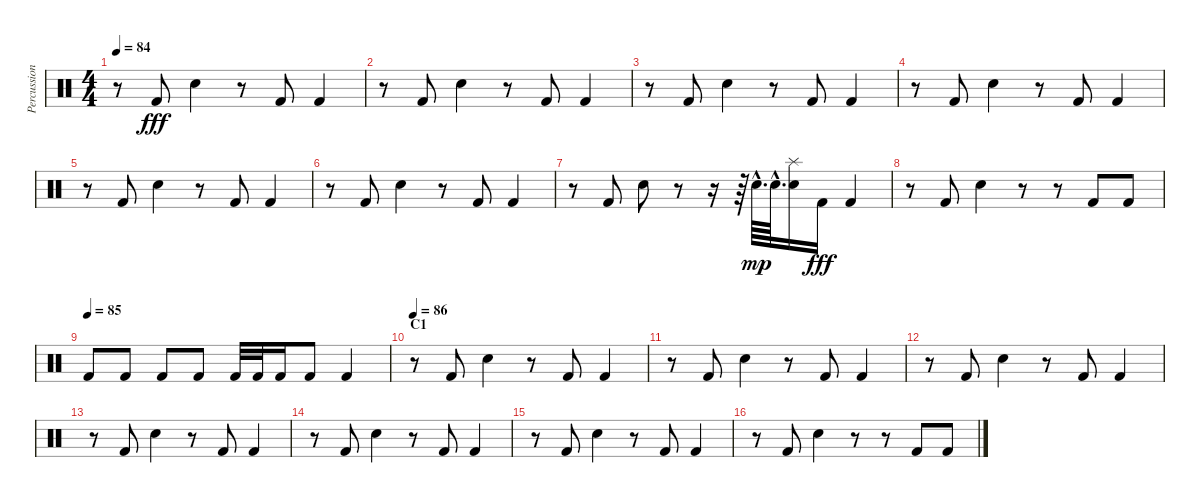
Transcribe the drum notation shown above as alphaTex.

\track ("Percussion" "Percussion") {instrument percussion}
\staff {score}
\articulation defaults
\ts (4 4)
\tempo 84
\clef neutral
\ks c
r.8{dy fff} "Kick (hit) 2".8 "Electric Snare (hit)".4 r.8 "Kick (hit) 2".8 "Kick (hit) 2".4 |
r.8 "Kick (hit) 2".8 "Electric Snare (hit)".4 r.8 "Kick (hit) 2".8 "Kick (hit) 2".4 |
r.8 "Kick (hit) 2".8 "Electric Snare (hit)".4 r.8 "Kick (hit) 2".8 "Kick (hit) 2".4 |
r.8 "Kick (hit) 2".8 "Electric Snare (hit)".4 r.8 "Kick (hit) 2".8 "Kick (hit) 2".4 |
r.8 "Kick (hit) 2".8 "Electric Snare (hit)".4 r.8 "Kick (hit) 2".8 "Kick (hit) 2".4 |
r.8 "Kick (hit) 2".8 "Electric Snare (hit)".4 r.8 "Kick (hit) 2".8 "Kick (hit) 2".4 |
r.8 "Kick (hit) 2".8 "Electric Snare (hit)".8 r.8 r.16 r.64 "Electric Snare (hit)"{hac}.64{d dy mp} "Electric Snare (hit)"{hac}.64{d} ("Electric Snare (hit)" "Splash (hit)").16 "Kick (hit) 2".16{dy fff} "Kick (hit) 2".4 |
r.8 "Kick (hit) 2".8 "Electric Snare (hit)".4 r.8 r.8 "Kick (hit) 2".8 "Kick (hit) 2".8 |
\tempo (85)
"Kick (hit) 2".8 "Kick (hit) 2".8 "Kick (hit) 2".8 "Kick (hit) 2".8 "Kick (hit) 2".32 "Kick (hit) 2".32 "Kick (hit) 2".16 "Kick (hit) 2".8 "Kick (hit) 2".4 |
\section ("" "C1")
\tempo 86
r.8 "Kick (hit) 2".8 "Electric Snare (hit)".4 r.8 "Kick (hit) 2".8 "Kick (hit) 2".4 |
r.8 "Kick (hit) 2".8 "Electric Snare (hit)".4 r.8 "Kick (hit) 2".8 "Kick (hit) 2".4 |
r.8 "Kick (hit) 2".8 "Electric Snare (hit)".4 r.8 "Kick (hit) 2".8 "Kick (hit) 2".4 |
r.8 "Kick (hit) 2".8 "Electric Snare (hit)".4 r.8 "Kick (hit) 2".8 "Kick (hit) 2".4 |
r.8 "Kick (hit) 2".8 "Electric Snare (hit)".4 r.8 "Kick (hit) 2".8 "Kick (hit) 2".4 |
r.8 "Kick (hit) 2".8 "Electric Snare (hit)".4 r.8 "Kick (hit) 2".8 "Kick (hit) 2".4 |
r.8 "Kick (hit) 2".8 "Electric Snare (hit)".4 r.8 r.8 "Kick (hit) 2".8 "Kick (hit) 2".8
